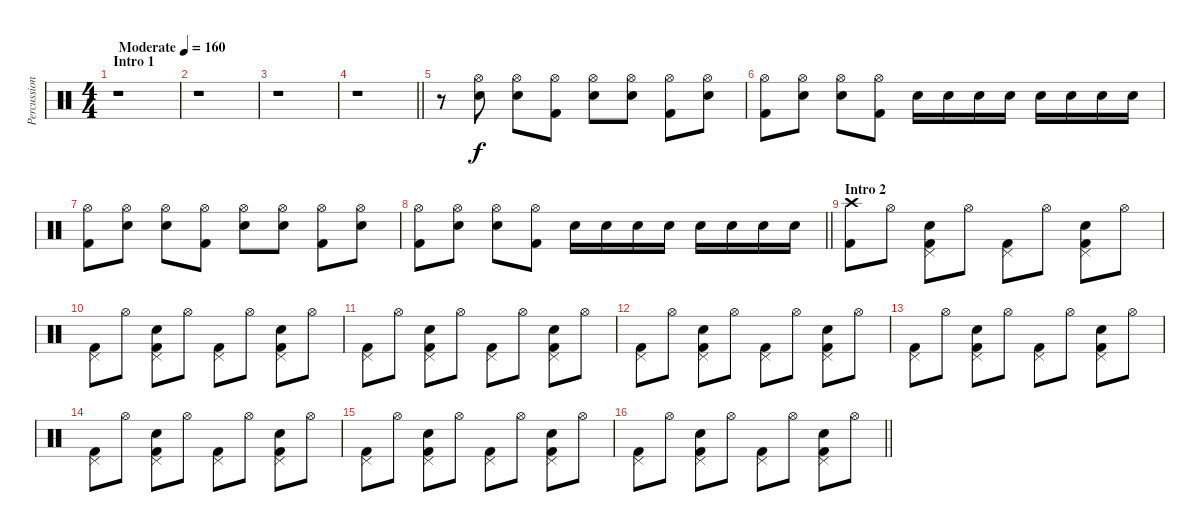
\track ("Percussion" "Percussion") {instrument percussion}
\staff {score}
\articulation defaults
\ts (4 4)
\section ("" "Intro 1")
\tempo (160 "Moderate")
\clef neutral
\ks c
r.1{dy f} |
r.1 |
r.1 |
\barLineRight lightlight
r.1 |
r.8 ("Hi-Hat (open)" "Electric Snare (hit)").8 ("Hi-Hat (open)" "Electric Snare (hit)").8 ("Hi-Hat (open)" "Kick (hit) 2").8 ("Hi-Hat (open)" "Electric Snare (hit)").8 ("Hi-Hat (open)" "Electric Snare (hit)").8 ("Hi-Hat (open)" "Kick (hit) 2").8 ("Hi-Hat (open)" "Electric Snare (hit)").8 |
("Hi-Hat (open)" "Kick (hit) 2").8 ("Hi-Hat (open)" "Electric Snare (hit)").8 ("Hi-Hat (open)" "Electric Snare (hit)").8 ("Hi-Hat (open)" "Kick (hit) 2").8 "Electric Snare (hit)".16 "Electric Snare (hit)".16 "Electric Snare (hit)".16 "Electric Snare (hit)".16 "Electric Snare (hit)".16 "Electric Snare (hit)".16 "Electric Snare (hit)".16 "Electric Snare (hit)".16 |
("Hi-Hat (open)" "Kick (hit) 2").8 ("Hi-Hat (open)" "Electric Snare (hit)").8 ("Hi-Hat (open)" "Electric Snare (hit)").8 ("Hi-Hat (open)" "Kick (hit) 2").8 ("Hi-Hat (open)" "Electric Snare (hit)").8 ("Hi-Hat (open)" "Electric Snare (hit)").8 ("Hi-Hat (open)" "Kick (hit) 2").8 ("Hi-Hat (open)" "Electric Snare (hit)").8 |
\barLineRight lightlight
("Hi-Hat (open)" "Kick (hit) 2").8 ("Hi-Hat (open)" "Electric Snare (hit)").8 ("Hi-Hat (open)" "Electric Snare (hit)").8 ("Hi-Hat (open)" "Kick (hit) 2").8 "Electric Snare (hit)".16 "Electric Snare (hit)".16 "Electric Snare (hit)".16 "Electric Snare (hit)".16 "Electric Snare (hit)".16 "Electric Snare (hit)".16 "Electric Snare (hit)".16 "Electric Snare (hit)".16 |
\section ("" "Intro 2")
("Crash high (hit)" "Kick (hit) 2").8 "Hi-Hat (open)".8 ("Pedal Hi-Hat (hit)" "Electric Snare (hit)" "Kick (hit) 2").8 "Hi-Hat (open)".8 ("Pedal Hi-Hat (hit)" "Kick (hit) 2").8 "Hi-Hat (open)".8 ("Pedal Hi-Hat (hit)" "Electric Snare (hit)" "Kick (hit) 2").8 "Hi-Hat (open)".8 |
("Pedal Hi-Hat (hit)" "Kick (hit) 2").8 "Hi-Hat (open)".8 ("Pedal Hi-Hat (hit)" "Electric Snare (hit)" "Kick (hit) 2").8 "Hi-Hat (open)".8 ("Pedal Hi-Hat (hit)" "Kick (hit) 2").8 "Hi-Hat (open)".8 ("Pedal Hi-Hat (hit)" "Electric Snare (hit)" "Kick (hit) 2").8 "Hi-Hat (open)".8 |
("Pedal Hi-Hat (hit)" "Kick (hit) 2").8 "Hi-Hat (open)".8 ("Pedal Hi-Hat (hit)" "Electric Snare (hit)" "Kick (hit) 2").8 "Hi-Hat (open)".8 ("Pedal Hi-Hat (hit)" "Kick (hit) 2").8 "Hi-Hat (open)".8 ("Pedal Hi-Hat (hit)" "Electric Snare (hit)" "Kick (hit) 2").8 "Hi-Hat (open)".8 |
("Pedal Hi-Hat (hit)" "Kick (hit) 2").8 "Hi-Hat (open)".8 ("Pedal Hi-Hat (hit)" "Electric Snare (hit)" "Kick (hit) 2").8 "Hi-Hat (open)".8 ("Pedal Hi-Hat (hit)" "Kick (hit) 2").8 "Hi-Hat (open)".8 ("Pedal Hi-Hat (hit)" "Electric Snare (hit)" "Kick (hit) 2").8 "Hi-Hat (open)".8 |
("Pedal Hi-Hat (hit)" "Kick (hit) 2").8 "Hi-Hat (open)".8 ("Pedal Hi-Hat (hit)" "Electric Snare (hit)" "Kick (hit) 2").8 "Hi-Hat (open)".8 ("Pedal Hi-Hat (hit)" "Kick (hit) 2").8 "Hi-Hat (open)".8 ("Pedal Hi-Hat (hit)" "Electric Snare (hit)" "Kick (hit) 2").8 "Hi-Hat (open)".8 |
("Pedal Hi-Hat (hit)" "Kick (hit) 2").8 "Hi-Hat (open)".8 ("Pedal Hi-Hat (hit)" "Electric Snare (hit)" "Kick (hit) 2").8 "Hi-Hat (open)".8 ("Pedal Hi-Hat (hit)" "Kick (hit) 2").8 "Hi-Hat (open)".8 ("Pedal Hi-Hat (hit)" "Electric Snare (hit)" "Kick (hit) 2").8 "Hi-Hat (open)".8 |
("Pedal Hi-Hat (hit)" "Kick (hit) 2").8 "Hi-Hat (open)".8 ("Pedal Hi-Hat (hit)" "Electric Snare (hit)" "Kick (hit) 2").8 "Hi-Hat (open)".8 ("Pedal Hi-Hat (hit)" "Kick (hit) 2").8 "Hi-Hat (open)".8 ("Pedal Hi-Hat (hit)" "Electric Snare (hit)" "Kick (hit) 2").8 "Hi-Hat (open)".8 |
\barLineRight lightlight
("Pedal Hi-Hat (hit)" "Kick (hit) 2").8 "Hi-Hat (open)".8 ("Pedal Hi-Hat (hit)" "Electric Snare (hit)" "Kick (hit) 2").8 "Hi-Hat (open)".8 ("Pedal Hi-Hat (hit)" "Kick (hit) 2").8 "Hi-Hat (open)".8 ("Pedal Hi-Hat (hit)" "Electric Snare (hit)" "Kick (hit) 2").8 "Hi-Hat (open)".8
